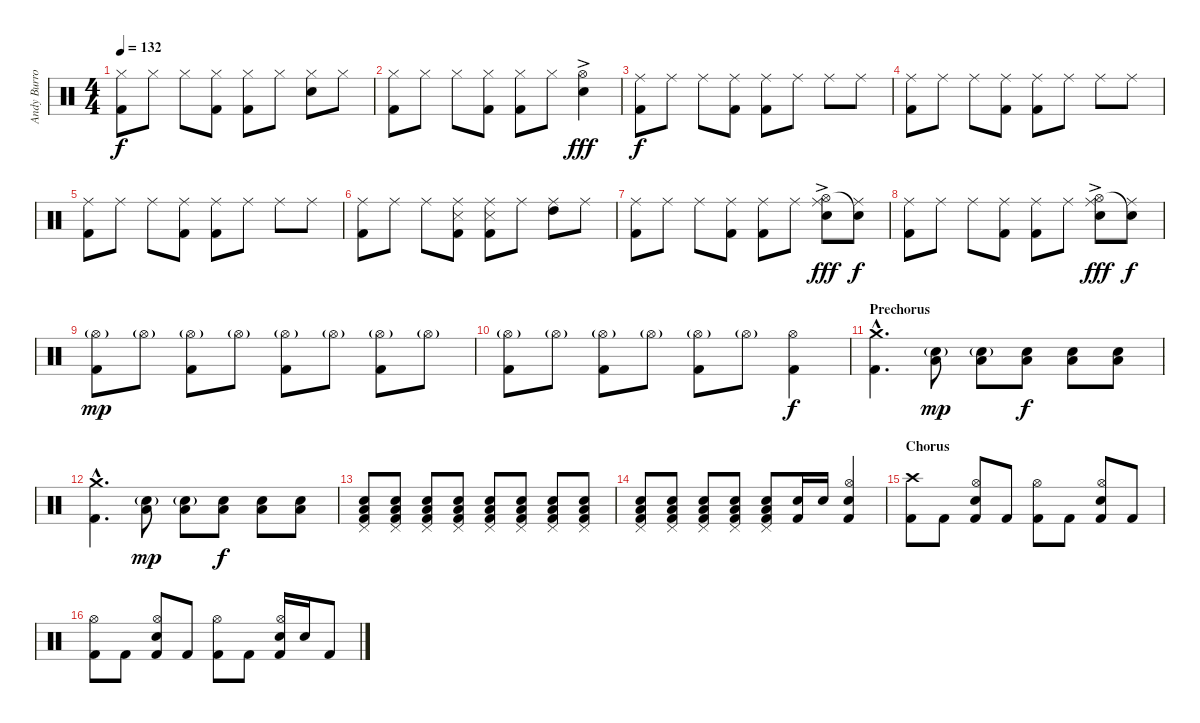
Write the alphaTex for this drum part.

\track ("Andy Burrows" "Andy Burro") {instrument percussion}
\staff {score}
\articulation defaults
\ts (4 4)
\tempo 132
\clef neutral
\ks c
("Hi-Hat (closed)" "Kick (hit) 2").8{dy f} "Hi-Hat (closed)".8 "Hi-Hat (closed)".8 ("Hi-Hat (closed)" "Kick (hit) 2").8 ("Hi-Hat (closed)" "Kick (hit) 2").8 "Hi-Hat (closed)".8 ("Hi-Hat (closed)" "Electric Snare (hit)").8 "Hi-Hat (closed)".8 |
("Hi-Hat (closed)" "Kick (hit) 2").8 "Hi-Hat (closed)".8 "Hi-Hat (closed)".8 ("Hi-Hat (closed)" "Kick (hit) 2").8 ("Hi-Hat (closed)" "Kick (hit) 2").8 "Hi-Hat (closed)".8 ("Hi-Hat (open)"{ac} "Snare (hit) 2"{ac}).4{dy fff} |
("Ride (middle)" "Kick (hit) 2").8{dy f} "Ride (middle)".8 "Ride (middle)".8 ("Ride (middle)" "Kick (hit) 2").8 ("Ride (middle)" "Kick (hit) 2").8 "Ride (middle)".8 "Ride (middle)".8 "Ride (middle)".8 |
("Ride (middle)" "Kick (hit) 2").8 "Ride (middle)".8 "Ride (middle)".8 ("Ride (middle)" "Kick (hit) 2").8 ("Ride (middle)" "Kick (hit) 2").8 "Ride (middle)".8 "Ride (middle)".8 "Ride (middle)".8 |
("Ride (middle)" "Kick (hit) 2").8 "Ride (middle)".8 "Ride (middle)".8 ("Ride (middle)" "Kick (hit) 2").8 ("Ride (middle)" "Kick (hit) 2").8 "Ride (middle)".8 "Ride (middle)".8 "Ride (middle)".8 |
("Ride (middle)" "Kick (hit) 2").8 "Ride (middle)".8 "Ride (middle)".8 ("Ride (middle)" "Snare (side stick) 3" "Kick (hit) 2").8 ("Ride (middle)" "Snare (side stick) 3" "Kick (hit) 2").8 "Ride (middle)".8 ("Ride (middle)" "High Tom (hit)").8 "Ride (middle)".8 |
("Ride (middle)" "Kick (hit) 2").8 "Ride (middle)".8 "Ride (middle)".8 ("Ride (middle)" "Kick (hit) 2").8 ("Ride (middle)" "Kick (hit) 2").8 "Ride (middle)".8 ("Hi-Hat (open)"{ac} "Ride (middle)" "Snare (hit) 2"{ac}).8{dy fff} ("Snare (hit)"{t} "Ride (middle)").8{dy f} |
("Ride (middle)" "Kick (hit) 2").8 "Ride (middle)".8 "Ride (middle)".8 ("Ride (middle)" "Kick (hit) 2").8 ("Ride (middle)" "Kick (hit) 2").8 "Ride (middle)".8 ("Hi-Hat (open)"{ac} "Ride (middle)" "Snare (hit) 2"{ac}).8{dy fff} ("Snare (hit)"{t} "Ride (middle)").8{dy f} |
("Hi-Hat (open)"{g} "Kick (hit) 2").8{dy mp volume 8} "Hi-Hat (open)"{g}.8 ("Hi-Hat (open)"{g} "Kick (hit) 2").8{volume 11} "Hi-Hat (open)"{g}.8 ("Hi-Hat (open)"{g} "Kick (hit) 2").8 "Hi-Hat (open)"{g}.8 ("Hi-Hat (open)"{g} "Kick (hit) 2").8 "Hi-Hat (open)"{g}.8 |
("Hi-Hat (open)"{g} "Kick (hit) 2").8 "Hi-Hat (open)"{g}.8 ("Hi-Hat (open)"{g} "Kick (hit) 2").8 "Hi-Hat (open)"{g}.8 ("Hi-Hat (open)"{g} "Kick (hit) 2").8 "Hi-Hat (open)"{g}.8 ("Hi-Hat (open)" "Kick (hit) 2").4{dy f} |
\section ("" "Prechorus")
("Crash medium (hit)"{hac} "Kick (hit) 2"{hac}).4{d} ("Snare (hit) 2"{g} "Low Floor Tom (hit)").8{dy mp} ("Snare (hit) 2"{g} "Low Floor Tom (hit)").8 ("Snare (hit) 2" "Low Floor Tom (hit)").8{dy f} ("Snare (hit) 2" "Low Floor Tom (hit)").8 ("Snare (hit) 2" "Low Floor Tom (hit)").8 |
("Crash medium (hit)"{hac} "Kick (hit) 2"{hac}).4{d} ("Snare (hit) 2"{g} "Low Floor Tom (hit)").8{dy mp} ("Snare (hit) 2"{g} "Low Floor Tom (hit)").8 ("Snare (hit) 2" "Low Floor Tom (hit)").8{dy f} ("Snare (hit) 2" "Low Floor Tom (hit)").8 ("Snare (hit) 2" "Low Floor Tom (hit)").8 |
("Snare (hit) 2" "Low Floor Tom (hit)" "Pedal Hi-Hat (hit)" "Kick (hit) 2").8{volume 8} ("Snare (hit) 2" "Low Floor Tom (hit)" "Pedal Hi-Hat (hit)" "Kick (hit) 2").8 ("Snare (hit) 2" "Low Floor Tom (hit)" "Pedal Hi-Hat (hit)" "Kick (hit) 2").8{volume 11} ("Snare (hit) 2" "Low Floor Tom (hit)" "Pedal Hi-Hat (hit)" "Kick (hit) 2").8 ("Snare (hit) 2" "Low Floor Tom (hit)" "Pedal Hi-Hat (hit)" "Kick (hit) 2").8 ("Snare (hit) 2" "Low Floor Tom (hit)" "Pedal Hi-Hat (hit)" "Kick (hit) 2").8 ("Snare (hit) 2" "Low Floor Tom (hit)" "Pedal Hi-Hat (hit)" "Kick (hit) 2").8 ("Snare (hit) 2" "Low Floor Tom (hit)" "Pedal Hi-Hat (hit)" "Kick (hit) 2").8 |
("Snare (hit) 2" "Low Floor Tom (hit)" "Pedal Hi-Hat (hit)" "Kick (hit) 2").8 ("Snare (hit) 2" "Low Floor Tom (hit)" "Pedal Hi-Hat (hit)" "Kick (hit) 2").8 ("Snare (hit) 2" "Low Floor Tom (hit)" "Pedal Hi-Hat (hit)" "Kick (hit) 2").8 ("Snare (hit) 2" "Low Floor Tom (hit)" "Pedal Hi-Hat (hit)" "Kick (hit) 2").8 ("Snare (hit) 2" "Low Floor Tom (hit)" "Pedal Hi-Hat (hit)" "Kick (hit) 2").8 ("Snare (hit) 2" "Kick (hit) 2").16 "Snare (hit) 2".16 ("Hi-Hat (open)" "Snare (hit) 2" "Kick (hit) 2").4 |
\section ("" "Chorus")
("Crash high (hit)" "Kick (hit) 2").8{volume 16} "Kick (hit) 2".8 ("Hi-Hat (open)" "Snare (hit) 2" "Kick (hit) 2").8 "Kick (hit) 2".8 ("Hi-Hat (open)" "Kick (hit) 2").8 "Kick (hit) 2".8 ("Hi-Hat (open)" "Snare (hit) 2" "Kick (hit) 2").8 "Kick (hit) 2".8 |
("Hi-Hat (open)" "Kick (hit) 2").8 "Kick (hit) 2".8 ("Hi-Hat (open)" "Snare (hit) 2" "Kick (hit) 2").8 "Kick (hit) 2".8 ("Hi-Hat (open)" "Kick (hit) 2").8 "Kick (hit) 2".8 ("Hi-Hat (open)" "Snare (hit) 2" "Kick (hit) 2").16 "Snare (hit) 2".16 "Kick (hit) 2".8
